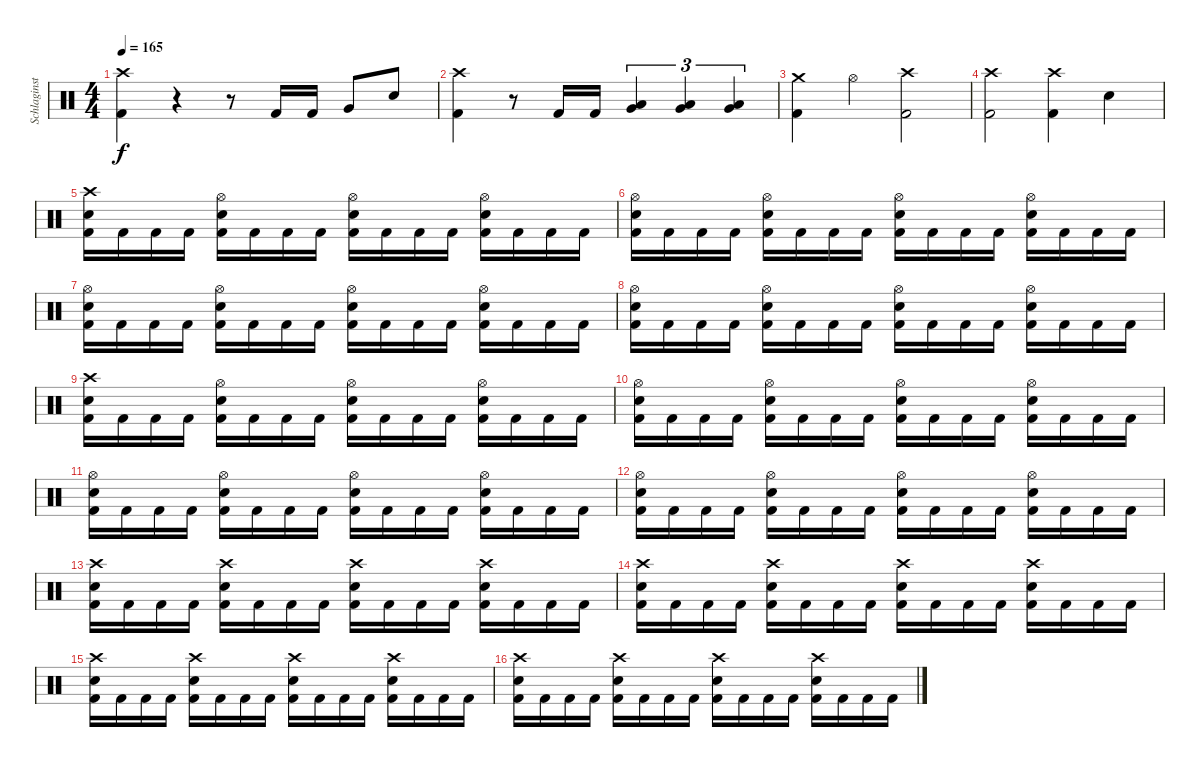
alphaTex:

\track ("Schlaginstrumente - Auswahl" "Schlaginst") {instrument percussion}
\staff {score}
\articulation defaults
\ts (4 4)
\tempo 165
\clef neutral
\ks c
("Crash high (hit)" "Kick (hit) 2").4{dy f} r.4 r.8 "Kick (hit) 2".16 "Kick (hit) 2".16 "Very Low Tom (hit)".8 "Snare (hit) 2".8 |
("Crash high (hit)" "Kick (hit) 2").4 r.8 "Kick (hit) 2".16 "Kick (hit) 2".16 ("Very Low Tom (hit)" "Low Floor Tom (hit)").4{tu (3 2)} ("Very Low Tom (hit)" "Low Floor Tom (hit)").4{tu (3 2)} ("Very Low Tom (hit)" "Low Floor Tom (hit)").4{tu (3 2)} |
("Crash medium (hit)" "Kick (hit) 2").4 "Hi-Hat (open)".4 ("Crash high (hit)" "Kick (hit) 2").2 |
("Crash high (hit)" "Kick (hit) 2").2 ("Crash high (hit)" "Kick (hit) 2").4 "Snare (hit) 2".4 |
("Crash high (hit)" "Snare (hit) 2" "Kick (hit) 2").16 "Kick (hit) 2".16 "Kick (hit) 2".16 "Kick (hit) 2".16 ("Hi-Hat (open)" "Snare (hit) 2" "Kick (hit) 2").16 "Kick (hit) 2".16 "Kick (hit) 2".16 "Kick (hit) 2".16 ("Hi-Hat (open)" "Snare (hit) 2" "Kick (hit) 2").16 "Kick (hit) 2".16 "Kick (hit) 2".16 "Kick (hit) 2".16 ("Hi-Hat (open)" "Snare (hit) 2" "Kick (hit) 2").16 "Kick (hit) 2".16 "Kick (hit) 2".16 "Kick (hit) 2".16 |
("Hi-Hat (open)" "Snare (hit) 2" "Kick (hit) 2").16 "Kick (hit) 2".16 "Kick (hit) 2".16 "Kick (hit) 2".16 ("Hi-Hat (open)" "Snare (hit) 2" "Kick (hit) 2").16 "Kick (hit) 2".16 "Kick (hit) 2".16 "Kick (hit) 2".16 ("Hi-Hat (open)" "Snare (hit) 2" "Kick (hit) 2").16 "Kick (hit) 2".16 "Kick (hit) 2".16 "Kick (hit) 2".16 ("Hi-Hat (open)" "Snare (hit) 2" "Kick (hit) 2").16 "Kick (hit) 2".16 "Kick (hit) 2".16 "Kick (hit) 2".16 |
("Hi-Hat (open)" "Snare (hit) 2" "Kick (hit) 2").16 "Kick (hit) 2".16 "Kick (hit) 2".16 "Kick (hit) 2".16 ("Hi-Hat (open)" "Snare (hit) 2" "Kick (hit) 2").16 "Kick (hit) 2".16 "Kick (hit) 2".16 "Kick (hit) 2".16 ("Hi-Hat (open)" "Snare (hit) 2" "Kick (hit) 2").16 "Kick (hit) 2".16 "Kick (hit) 2".16 "Kick (hit) 2".16 ("Hi-Hat (open)" "Snare (hit) 2" "Kick (hit) 2").16 "Kick (hit) 2".16 "Kick (hit) 2".16 "Kick (hit) 2".16 |
("Hi-Hat (open)" "Snare (hit) 2" "Kick (hit) 2").16 "Kick (hit) 2".16 "Kick (hit) 2".16 "Kick (hit) 2".16 ("Hi-Hat (open)" "Snare (hit) 2" "Kick (hit) 2").16 "Kick (hit) 2".16 "Kick (hit) 2".16 "Kick (hit) 2".16 ("Hi-Hat (open)" "Snare (hit) 2" "Kick (hit) 2").16 "Kick (hit) 2".16 "Kick (hit) 2".16 "Kick (hit) 2".16 ("Hi-Hat (open)" "Snare (hit) 2" "Kick (hit) 2").16 "Kick (hit) 2".16 "Kick (hit) 2".16 "Kick (hit) 2".16 |
("Crash high (hit)" "Snare (hit) 2" "Kick (hit) 2").16 "Kick (hit) 2".16 "Kick (hit) 2".16 "Kick (hit) 2".16 ("Hi-Hat (open)" "Snare (hit) 2" "Kick (hit) 2").16 "Kick (hit) 2".16 "Kick (hit) 2".16 "Kick (hit) 2".16 ("Hi-Hat (open)" "Snare (hit) 2" "Kick (hit) 2").16 "Kick (hit) 2".16 "Kick (hit) 2".16 "Kick (hit) 2".16 ("Hi-Hat (open)" "Snare (hit) 2" "Kick (hit) 2").16 "Kick (hit) 2".16 "Kick (hit) 2".16 "Kick (hit) 2".16 |
("Hi-Hat (open)" "Snare (hit) 2" "Kick (hit) 2").16 "Kick (hit) 2".16 "Kick (hit) 2".16 "Kick (hit) 2".16 ("Hi-Hat (open)" "Snare (hit) 2" "Kick (hit) 2").16 "Kick (hit) 2".16 "Kick (hit) 2".16 "Kick (hit) 2".16 ("Hi-Hat (open)" "Snare (hit) 2" "Kick (hit) 2").16 "Kick (hit) 2".16 "Kick (hit) 2".16 "Kick (hit) 2".16 ("Hi-Hat (open)" "Snare (hit) 2" "Kick (hit) 2").16 "Kick (hit) 2".16 "Kick (hit) 2".16 "Kick (hit) 2".16 |
("Hi-Hat (open)" "Snare (hit) 2" "Kick (hit) 2").16 "Kick (hit) 2".16 "Kick (hit) 2".16 "Kick (hit) 2".16 ("Hi-Hat (open)" "Snare (hit) 2" "Kick (hit) 2").16 "Kick (hit) 2".16 "Kick (hit) 2".16 "Kick (hit) 2".16 ("Hi-Hat (open)" "Snare (hit) 2" "Kick (hit) 2").16 "Kick (hit) 2".16 "Kick (hit) 2".16 "Kick (hit) 2".16 ("Hi-Hat (open)" "Snare (hit) 2" "Kick (hit) 2").16 "Kick (hit) 2".16 "Kick (hit) 2".16 "Kick (hit) 2".16 |
("Hi-Hat (open)" "Snare (hit) 2" "Kick (hit) 2").16 "Kick (hit) 2".16 "Kick (hit) 2".16 "Kick (hit) 2".16 ("Hi-Hat (open)" "Snare (hit) 2" "Kick (hit) 2").16 "Kick (hit) 2".16 "Kick (hit) 2".16 "Kick (hit) 2".16 ("Hi-Hat (open)" "Snare (hit) 2" "Kick (hit) 2").16 "Kick (hit) 2".16 "Kick (hit) 2".16 "Kick (hit) 2".16 ("Hi-Hat (open)" "Snare (hit) 2" "Kick (hit) 2").16 "Kick (hit) 2".16 "Kick (hit) 2".16 "Kick (hit) 2".16 |
("Crash high (hit)" "Snare (hit) 2" "Kick (hit) 2").16 "Kick (hit) 2".16 "Kick (hit) 2".16 "Kick (hit) 2".16 ("Crash high (hit)" "Snare (hit) 2" "Kick (hit) 2").16 "Kick (hit) 2".16 "Kick (hit) 2".16 "Kick (hit) 2".16 ("Crash high (hit)" "Snare (hit) 2" "Kick (hit) 2").16 "Kick (hit) 2".16 "Kick (hit) 2".16 "Kick (hit) 2".16 ("Crash high (hit)" "Snare (hit) 2" "Kick (hit) 2").16 "Kick (hit) 2".16 "Kick (hit) 2".16 "Kick (hit) 2".16 |
("Crash high (hit)" "Snare (hit) 2" "Kick (hit) 2").16 "Kick (hit) 2".16 "Kick (hit) 2".16 "Kick (hit) 2".16 ("Crash high (hit)" "Snare (hit) 2" "Kick (hit) 2").16 "Kick (hit) 2".16 "Kick (hit) 2".16 "Kick (hit) 2".16 ("Crash high (hit)" "Snare (hit) 2" "Kick (hit) 2").16 "Kick (hit) 2".16 "Kick (hit) 2".16 "Kick (hit) 2".16 ("Crash high (hit)" "Snare (hit) 2" "Kick (hit) 2").16 "Kick (hit) 2".16 "Kick (hit) 2".16 "Kick (hit) 2".16 |
("Crash high (hit)" "Snare (hit) 2" "Kick (hit) 2").16 "Kick (hit) 2".16 "Kick (hit) 2".16 "Kick (hit) 2".16 ("Crash high (hit)" "Snare (hit) 2" "Kick (hit) 2").16 "Kick (hit) 2".16 "Kick (hit) 2".16 "Kick (hit) 2".16 ("Crash high (hit)" "Snare (hit) 2" "Kick (hit) 2").16 "Kick (hit) 2".16 "Kick (hit) 2".16 "Kick (hit) 2".16 ("Crash high (hit)" "Snare (hit) 2" "Kick (hit) 2").16 "Kick (hit) 2".16 "Kick (hit) 2".16 "Kick (hit) 2".16 |
("Crash high (hit)" "Snare (hit) 2" "Kick (hit) 2").16 "Kick (hit) 2".16 "Kick (hit) 2".16 "Kick (hit) 2".16 ("Crash high (hit)" "Snare (hit) 2" "Kick (hit) 2").16 "Kick (hit) 2".16 "Kick (hit) 2".16 "Kick (hit) 2".16 ("Crash high (hit)" "Snare (hit) 2" "Kick (hit) 2").16 "Kick (hit) 2".16 "Kick (hit) 2".16 "Kick (hit) 2".16 ("Crash high (hit)" "Snare (hit) 2" "Kick (hit) 2").16 "Kick (hit) 2".16 "Kick (hit) 2".16 "Kick (hit) 2".16
